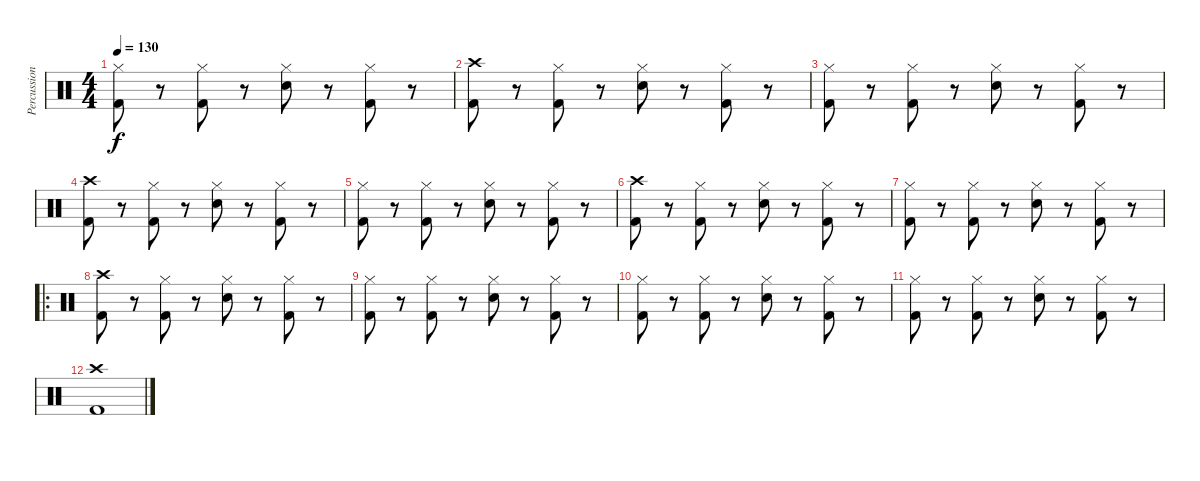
\track ("Percussion" "Percussion") {instrument percussion}
\staff {score}
\articulation defaults
\ts (4 4)
\tempo 130
\clef neutral
\ks c
("Hi-Hat (closed)" "Kick (hit) 2").8{dy f} r.8 ("Hi-Hat (closed)" "Kick (hit) 2").8 r.8 ("Hi-Hat (closed)" "Snare (hit) 2").8 r.8 ("Hi-Hat (closed)" "Kick (hit) 2").8 r.8 |
("Crash high (hit)" "Kick (hit) 2").8 r.8 ("Hi-Hat (closed)" "Kick (hit) 2").8 r.8 ("Hi-Hat (closed)" "Snare (hit) 2").8 r.8 ("Hi-Hat (closed)" "Kick (hit) 2").8 r.8 |
("Hi-Hat (closed)" "Kick (hit) 2").8 r.8 ("Hi-Hat (closed)" "Kick (hit) 2").8 r.8 ("Hi-Hat (closed)" "Snare (hit) 2").8 r.8 ("Hi-Hat (closed)" "Kick (hit) 2").8 r.8 |
("Crash high (hit)" "Kick (hit) 2").8 r.8 ("Hi-Hat (closed)" "Kick (hit) 2").8 r.8 ("Hi-Hat (closed)" "Snare (hit) 2").8 r.8 ("Hi-Hat (closed)" "Kick (hit) 2").8 r.8 |
("Hi-Hat (closed)" "Kick (hit) 2").8 r.8 ("Hi-Hat (closed)" "Kick (hit) 2").8 r.8 ("Hi-Hat (closed)" "Snare (hit) 2").8 r.8 ("Hi-Hat (closed)" "Kick (hit) 2").8 r.8 |
("Crash high (hit)" "Kick (hit) 2").8 r.8 ("Hi-Hat (closed)" "Kick (hit) 2").8 r.8 ("Hi-Hat (closed)" "Snare (hit) 2").8 r.8 ("Hi-Hat (closed)" "Kick (hit) 2").8 r.8 |
("Hi-Hat (closed)" "Kick (hit) 2").8 r.8 ("Hi-Hat (closed)" "Kick (hit) 2").8 r.8 ("Hi-Hat (closed)" "Snare (hit) 2").8 r.8 ("Hi-Hat (closed)" "Kick (hit) 2").8 r.8 |
\ro
("Crash high (hit)" "Kick (hit) 2").8 r.8 ("Hi-Hat (closed)" "Kick (hit) 2").8 r.8 ("Hi-Hat (closed)" "Snare (hit) 2").8 r.8 ("Hi-Hat (closed)" "Kick (hit) 2").8 r.8 |
("Hi-Hat (closed)" "Kick (hit) 2").8 r.8 ("Hi-Hat (closed)" "Kick (hit) 2").8 r.8 ("Hi-Hat (closed)" "Snare (hit) 2").8 r.8 ("Hi-Hat (closed)" "Kick (hit) 2").8 r.8 |
("Hi-Hat (closed)" "Kick (hit) 2").8 r.8 ("Hi-Hat (closed)" "Kick (hit) 2").8 r.8 ("Hi-Hat (closed)" "Snare (hit) 2").8 r.8 ("Hi-Hat (closed)" "Kick (hit) 2").8 r.8 |
("Hi-Hat (closed)" "Kick (hit) 2").8 r.8 ("Hi-Hat (closed)" "Kick (hit) 2").8 r.8 ("Hi-Hat (closed)" "Snare (hit) 2").8 r.8 ("Hi-Hat (closed)" "Kick (hit) 2").8 r.8 |
("Crash high (hit)" "Kick (hit) 2").1
